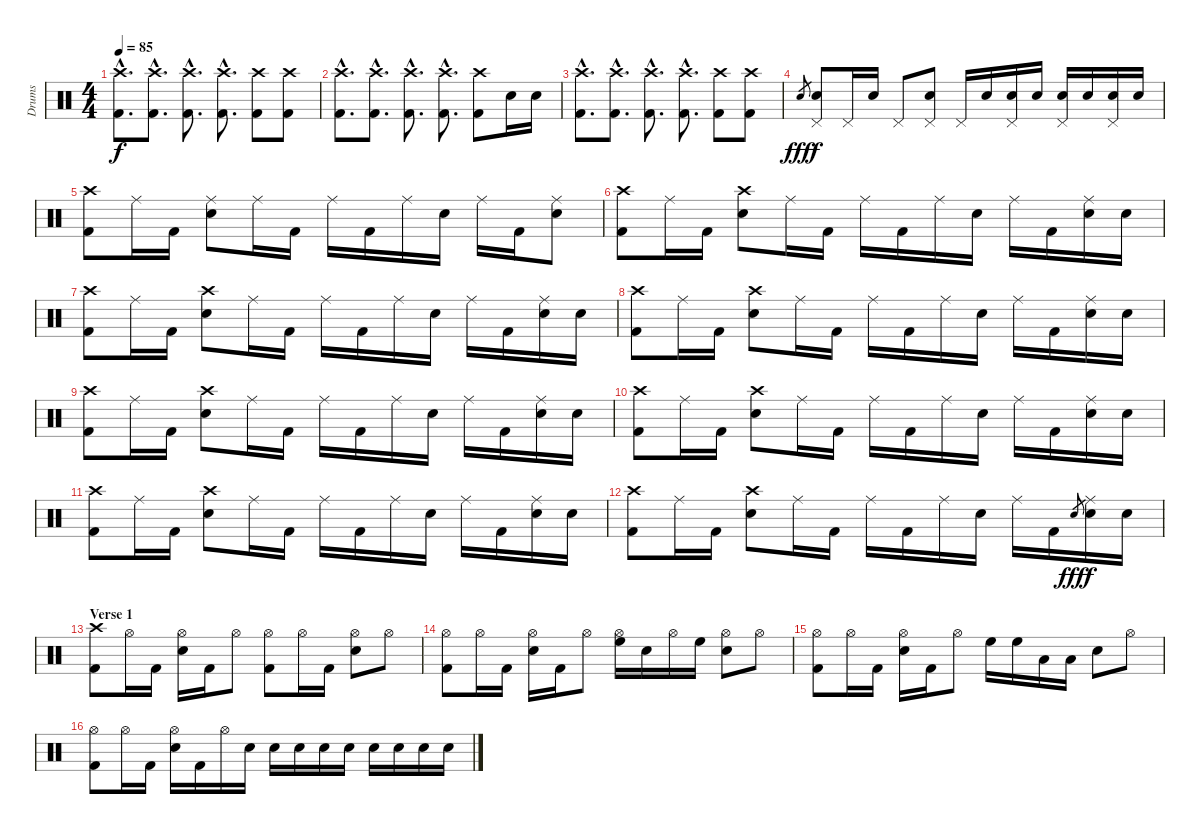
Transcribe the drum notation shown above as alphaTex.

\track ("Drums" "Drums") {instrument percussion}
\staff {score}
\articulation defaults
\ts (4 4)
\tempo 85
\clef neutral
\ks c
("Crash high (hit)"{hac} "Kick (hit) 2"{hac}).8{d dy f} ("Crash high (hit)"{hac} "Kick (hit) 2"{hac}).8{d} ("Crash high (hit)"{hac} "Kick (hit) 2"{hac}).8{d} ("Crash high (hit)"{hac} "Kick (hit) 2"{hac}).8{d} ("Crash high (hit)" "Kick (hit) 2").8 ("Crash high (hit)" "Kick (hit) 2").8 |
("Crash high (hit)"{hac} "Kick (hit) 2"{hac}).8{d} ("Crash high (hit)"{hac} "Kick (hit) 2"{hac}).8{d} ("Crash high (hit)"{hac} "Kick (hit) 2"{hac}).8{d} ("Crash high (hit)"{hac} "Kick (hit) 2"{hac}).8{d} ("Crash high (hit)" "Kick (hit) 2").8 "Electric Snare (hit)".16 "Electric Snare (hit)".16 |
("Crash high (hit)"{hac} "Kick (hit) 2"{hac}).8{d} ("Crash high (hit)"{hac} "Kick (hit) 2"{hac}).8{d} ("Crash high (hit)"{hac} "Kick (hit) 2"{hac}).8{d} ("Crash high (hit)"{hac} "Kick (hit) 2"{hac}).8{d} ("Crash high (hit)" "Kick (hit) 2").8 ("Crash high (hit)" "Kick (hit) 2").8 |
"Electric Snare (hit)".8{gr dy fff} ("Pedal Hi-Hat (hit)" "Electric Snare (hit)").8{dy f} "Pedal Hi-Hat (hit)".16 "Electric Snare (hit)".16 "Pedal Hi-Hat (hit)".8 ("Pedal Hi-Hat (hit)" "Electric Snare (hit)").8 "Pedal Hi-Hat (hit)".16 "Electric Snare (hit)".16 ("Pedal Hi-Hat (hit)" "Electric Snare (hit)").16 "Electric Snare (hit)".16 ("Pedal Hi-Hat (hit)" "Electric Snare (hit)").16 "Electric Snare (hit)".16 ("Pedal Hi-Hat (hit)" "Electric Snare (hit)").16 "Electric Snare (hit)".16 |
("Crash high (hit)" "Kick (hit) 2").8 "Ride (middle)".16 "Kick (hit) 2".16 ("Ride (middle)" "Electric Snare (hit)").8 "Ride (middle)".16 "Kick (hit) 2".16 "Ride (middle)".16 "Kick (hit) 2".16 "Ride (middle)".16 "Electric Snare (hit)".16 "Ride (middle)".16 "Kick (hit) 2".16 ("Ride (middle)" "Electric Snare (hit)").8 |
("Crash high (hit)" "Kick (hit) 2").8 "Ride (middle)".16 "Kick (hit) 2".16 ("Crash high (hit)" "Electric Snare (hit)").8 "Ride (middle)".16 "Kick (hit) 2".16 "Ride (middle)".16 "Kick (hit) 2".16 "Ride (middle)".16 "Electric Snare (hit)".16 "Ride (middle)".16 "Kick (hit) 2".16 ("Ride (middle)" "Electric Snare (hit)").16 "Electric Snare (hit)".16 |
("Crash high (hit)" "Kick (hit) 2").8 "Ride (middle)".16 "Kick (hit) 2".16 ("Crash high (hit)" "Electric Snare (hit)").8 "Ride (middle)".16 "Kick (hit) 2".16 "Ride (middle)".16 "Kick (hit) 2".16 "Ride (middle)".16 "Electric Snare (hit)".16 "Ride (middle)".16 "Kick (hit) 2".16 ("Ride (middle)" "Electric Snare (hit)").16 "Electric Snare (hit)".16 |
("Crash high (hit)" "Kick (hit) 2").8 "Ride (middle)".16 "Kick (hit) 2".16 ("Crash high (hit)" "Electric Snare (hit)").8 "Ride (middle)".16 "Kick (hit) 2".16 "Ride (middle)".16 "Kick (hit) 2".16 "Ride (middle)".16 "Electric Snare (hit)".16 "Ride (middle)".16 "Kick (hit) 2".16 ("Ride (middle)" "Electric Snare (hit)").16 "Electric Snare (hit)".16 |
("Crash high (hit)" "Kick (hit) 2").8 "Ride (middle)".16 "Kick (hit) 2".16 ("Crash high (hit)" "Electric Snare (hit)").8 "Ride (middle)".16 "Kick (hit) 2".16 "Ride (middle)".16 "Kick (hit) 2".16 "Ride (middle)".16 "Electric Snare (hit)".16 "Ride (middle)".16 "Kick (hit) 2".16 ("Ride (middle)" "Electric Snare (hit)").16 "Electric Snare (hit)".16 |
("Crash high (hit)" "Kick (hit) 2").8 "Ride (middle)".16 "Kick (hit) 2".16 ("Crash high (hit)" "Electric Snare (hit)").8 "Ride (middle)".16 "Kick (hit) 2".16 "Ride (middle)".16 "Kick (hit) 2".16 "Ride (middle)".16 "Electric Snare (hit)".16 "Ride (middle)".16 "Kick (hit) 2".16 ("Ride (middle)" "Electric Snare (hit)").16 "Electric Snare (hit)".16 |
("Crash high (hit)" "Kick (hit) 2").8 "Ride (middle)".16 "Kick (hit) 2".16 ("Crash high (hit)" "Electric Snare (hit)").8 "Ride (middle)".16 "Kick (hit) 2".16 "Ride (middle)".16 "Kick (hit) 2".16 "Ride (middle)".16 "Electric Snare (hit)".16 "Ride (middle)".16 "Kick (hit) 2".16 ("Ride (middle)" "Electric Snare (hit)").16 "Electric Snare (hit)".16 |
("Crash high (hit)" "Kick (hit) 2").8 "Ride (middle)".16 "Kick (hit) 2".16 ("Crash high (hit)" "Electric Snare (hit)").8 "Ride (middle)".16 "Kick (hit) 2".16 "Ride (middle)".16 "Kick (hit) 2".16 "Ride (middle)".16 "Electric Snare (hit)".16 "Ride (middle)".16 "Kick (hit) 2".16 "Electric Snare (hit)".8{gr dy fff} ("Ride (middle)" "Electric Snare (hit)").16{dy f} "Electric Snare (hit)".16 |
\section ("" "Verse 1")
("Crash high (hit)" "Kick (hit) 2").8 "Hi-Hat (open)".16 "Kick (hit) 2".16 ("Hi-Hat (open)" "Electric Snare (hit)").16 "Kick (hit) 2".16 "Hi-Hat (open)".8 ("Hi-Hat (open)" "Kick (hit) 2").8 "Hi-Hat (open)".16 "Kick (hit) 2".16 ("Hi-Hat (open)" "Electric Snare (hit)").8 "Hi-Hat (open)".8 |
("Hi-Hat (open)" "Kick (hit) 2").8 "Hi-Hat (open)".16 "Kick (hit) 2".16 ("Hi-Hat (open)" "Electric Snare (hit)").16 "Kick (hit) 2".16 "Hi-Hat (open)".8 ("Hi-Hat (open)" "High Floor Tom (hit)").16 "Electric Snare (hit)".16 "Hi-Hat (open)".16 "High Floor Tom (hit)".16 ("Hi-Hat (open)" "Electric Snare (hit)").8 "Hi-Hat (open)".8 |
("Hi-Hat (open)" "Kick (hit) 2").8 "Hi-Hat (open)".16 "Kick (hit) 2".16 ("Hi-Hat (open)" "Electric Snare (hit)").16 "Kick (hit) 2".16 "Hi-Hat (open)".8 "High Floor Tom (hit)".16 "High Floor Tom (hit)".16 "Low Tom (hit)".16 "Low Tom (hit)".16 "Electric Snare (hit)".8 "Hi-Hat (open)".8 |
("Hi-Hat (open)" "Kick (hit) 2").8 "Hi-Hat (open)".16 "Kick (hit) 2".16 ("Hi-Hat (open)" "Electric Snare (hit)").16 "Kick (hit) 2".16 "Hi-Hat (open)".16 "Electric Snare (hit)".16 "Electric Snare (hit)".16 "Electric Snare (hit)".16 "Electric Snare (hit)".16 "Electric Snare (hit)".16 "Electric Snare (hit)".16 "Electric Snare (hit)".16 "Electric Snare (hit)".16 "Electric Snare (hit)".16
